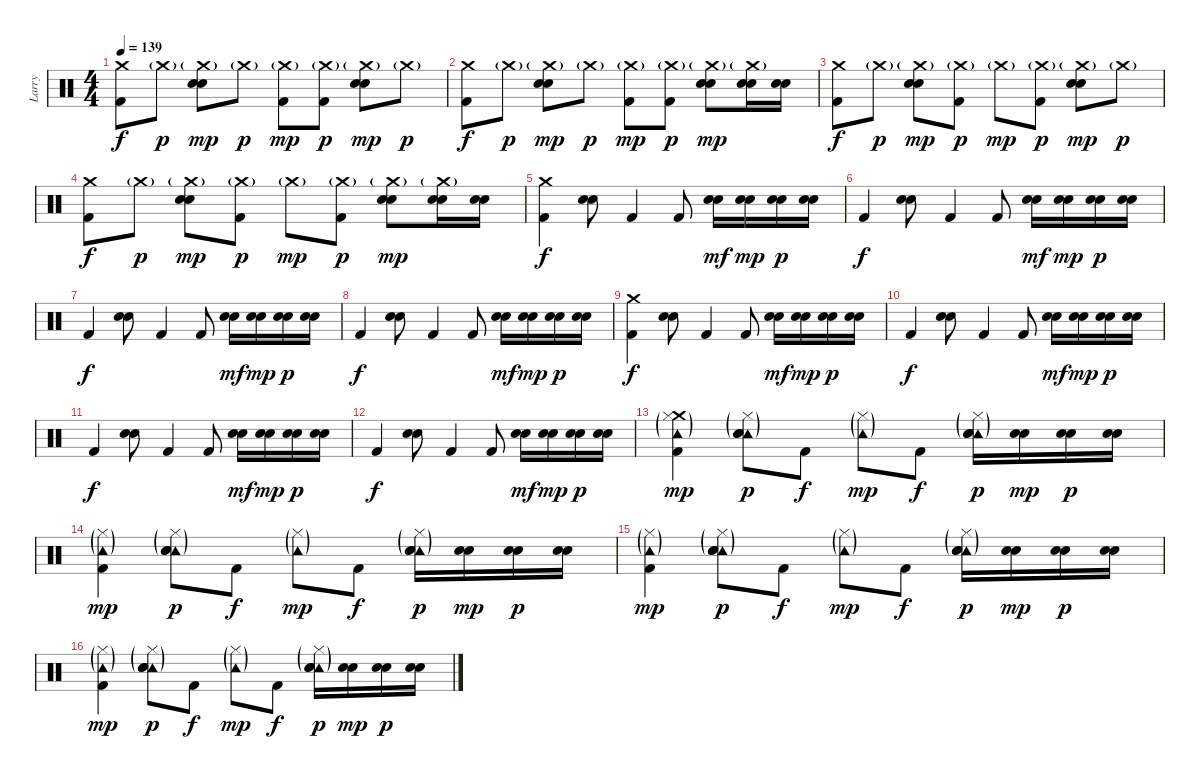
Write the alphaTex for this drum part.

\track ("Larry" "Larry") {instrument percussion}
\staff {score}
\articulation defaults
\ts (4 4)
\tempo 139
\clef neutral
\ks c
("Crash medium (hit)" "Kick (hit) 2").8{dy f} "Crash medium (hit)"{g}.8{dy p} ("Crash medium (hit)"{g} "Snare (hit) 2" "Electric Snare (hit)").8{dy mp} "Crash medium (hit)"{g}.8{dy p} ("Crash medium (hit)"{g} "Kick (hit) 2").8{dy mp} ("Crash medium (hit)"{g} "Kick (hit) 2").8{dy p} ("Crash medium (hit)"{g} "Snare (hit) 2" "Electric Snare (hit)").8{dy mp} "Crash medium (hit)"{g}.8{dy p} |
("Crash medium (hit)" "Kick (hit) 2").8{dy f} "Crash medium (hit)"{g}.8{dy p} ("Crash medium (hit)"{g} "Snare (hit) 2" "Electric Snare (hit)").8{dy mp} "Crash medium (hit)"{g}.8{dy p} ("Crash medium (hit)"{g} "Kick (hit) 2").8{dy mp} ("Crash medium (hit)"{g} "Kick (hit) 2").8{dy p} ("Crash medium (hit)"{g} "Snare (hit) 2" "Electric Snare (hit)").8{dy mp} ("Crash medium (hit)"{g} "Snare (hit) 2" "Electric Snare (hit)").16 ("Snare (hit) 2" "Electric Snare (hit)").16 |
("Crash medium (hit)" "Kick (hit) 2").8{dy f} "Crash medium (hit)"{g}.8{dy p} ("Crash medium (hit)"{g} "Snare (hit) 2" "Electric Snare (hit)").8{dy mp} ("Crash medium (hit)"{g} "Kick (hit) 2").8{dy p} "Crash medium (hit)"{g}.8{dy mp} ("Crash medium (hit)"{g} "Kick (hit) 2").8{dy p} ("Crash medium (hit)"{g} "Snare (hit) 2" "Electric Snare (hit)").8{dy mp} "Crash medium (hit)"{g}.8{dy p} |
("Crash medium (hit)" "Kick (hit) 2").8{dy f} "Crash medium (hit)"{g}.8{dy p} ("Crash medium (hit)"{g} "Snare (hit) 2" "Electric Snare (hit)").8{dy mp} ("Crash medium (hit)"{g} "Kick (hit) 2").8{dy p} "Crash medium (hit)"{g}.8{dy mp} ("Crash medium (hit)"{g} "Kick (hit) 2").8{dy p} ("Crash medium (hit)"{g} "Snare (hit) 2" "Electric Snare (hit)").8{dy mp} ("Crash medium (hit)"{g} "Snare (hit) 2" "Electric Snare (hit)").16 ("Snare (hit) 2" "Electric Snare (hit)").16 |
("Crash medium (hit)" "Kick (hit) 2").4{dy f} ("Snare (hit) 2" "Electric Snare (hit)").8 "Kick (hit) 2".4 "Kick (hit) 2".8 ("Snare (hit) 2" "Electric Snare (hit)").16{dy mf} ("Snare (hit) 2" "Electric Snare (hit)").16{dy mp} ("Snare (hit) 2" "Electric Snare (hit)").16{dy p} ("Snare (hit) 2" "Electric Snare (hit)").16 |
"Kick (hit) 2".4{dy f} ("Snare (hit) 2" "Electric Snare (hit)").8 "Kick (hit) 2".4 "Kick (hit) 2".8 ("Snare (hit) 2" "Electric Snare (hit)").16{dy mf} ("Snare (hit) 2" "Electric Snare (hit)").16{dy mp} ("Snare (hit) 2" "Electric Snare (hit)").16{dy p} ("Snare (hit) 2" "Electric Snare (hit)").16 |
"Kick (hit) 2".4{dy f} ("Snare (hit) 2" "Electric Snare (hit)").8 "Kick (hit) 2".4 "Kick (hit) 2".8 ("Snare (hit) 2" "Electric Snare (hit)").16{dy mf} ("Snare (hit) 2" "Electric Snare (hit)").16{dy mp} ("Snare (hit) 2" "Electric Snare (hit)").16{dy p} ("Snare (hit) 2" "Electric Snare (hit)").16 |
"Kick (hit) 2".4{dy f} ("Snare (hit) 2" "Electric Snare (hit)").8 "Kick (hit) 2".4 "Kick (hit) 2".8 ("Snare (hit) 2" "Electric Snare (hit)").16{dy mf} ("Snare (hit) 2" "Electric Snare (hit)").16{dy mp} ("Snare (hit) 2" "Electric Snare (hit)").16{dy p} ("Snare (hit) 2" "Electric Snare (hit)").16 |
("Crash medium (hit)" "Kick (hit) 2").4{dy f} ("Snare (hit) 2" "Electric Snare (hit)").8 "Kick (hit) 2".4 "Kick (hit) 2".8 ("Snare (hit) 2" "Electric Snare (hit)").16{dy mf} ("Snare (hit) 2" "Electric Snare (hit)").16{dy mp} ("Snare (hit) 2" "Electric Snare (hit)").16{dy p} ("Snare (hit) 2" "Electric Snare (hit)").16 |
"Kick (hit) 2".4{dy f} ("Snare (hit) 2" "Electric Snare (hit)").8 "Kick (hit) 2".4 "Kick (hit) 2".8 ("Snare (hit) 2" "Electric Snare (hit)").16{dy mf} ("Snare (hit) 2" "Electric Snare (hit)").16{dy mp} ("Snare (hit) 2" "Electric Snare (hit)").16{dy p} ("Snare (hit) 2" "Electric Snare (hit)").16 |
"Kick (hit) 2".4{dy f} ("Snare (hit) 2" "Electric Snare (hit)").8 "Kick (hit) 2".4 "Kick (hit) 2".8 ("Snare (hit) 2" "Electric Snare (hit)").16{dy mf} ("Snare (hit) 2" "Electric Snare (hit)").16{dy mp} ("Snare (hit) 2" "Electric Snare (hit)").16{dy p} ("Snare (hit) 2" "Electric Snare (hit)").16 |
"Kick (hit) 2".4{dy f} ("Snare (hit) 2" "Electric Snare (hit)").8 "Kick (hit) 2".4 "Kick (hit) 2".8 ("Snare (hit) 2" "Electric Snare (hit)").16{dy mf} ("Snare (hit) 2" "Electric Snare (hit)").16{dy mp} ("Snare (hit) 2" "Electric Snare (hit)").16{dy p} ("Snare (hit) 2" "Electric Snare (hit)").16 |
("Crash medium (hit)" "Tambourine (hit)"{g} "Kick (hit) 2" "Hi-Hat (closed)"{g}).4{dy mp} ("Tambourine (hit)"{g} "Snare (hit) 2" "Electric Snare (hit)" "Hi-Hat (closed)"{g}).8{dy p} "Kick (hit) 2".8{dy f} ("Tambourine (hit)"{g} "Hi-Hat (closed)"{g}).8{dy mp} "Kick (hit) 2".8{dy f} ("Tambourine (hit)"{g} "Snare (hit) 2" "Electric Snare (hit)" "Hi-Hat (closed)"{g}).16{dy p} ("Snare (hit) 2" "Electric Snare (hit)").16{dy mp} ("Snare (hit) 2" "Electric Snare (hit)").16{dy p} ("Snare (hit) 2" "Electric Snare (hit)").16 |
("Tambourine (hit)"{g} "Kick (hit) 2" "Hi-Hat (closed)"{g}).4{dy mp} ("Tambourine (hit)"{g} "Snare (hit) 2" "Electric Snare (hit)" "Hi-Hat (closed)"{g}).8{dy p} "Kick (hit) 2".8{dy f} ("Tambourine (hit)"{g} "Hi-Hat (closed)"{g}).8{dy mp} "Kick (hit) 2".8{dy f} ("Tambourine (hit)"{g} "Snare (hit) 2" "Electric Snare (hit)" "Hi-Hat (closed)"{g}).16{dy p} ("Snare (hit) 2" "Electric Snare (hit)").16{dy mp} ("Snare (hit) 2" "Electric Snare (hit)").16{dy p} ("Snare (hit) 2" "Electric Snare (hit)").16 |
("Tambourine (hit)"{g} "Kick (hit) 2" "Hi-Hat (closed)"{g}).4{dy mp} ("Tambourine (hit)"{g} "Snare (hit) 2" "Electric Snare (hit)" "Hi-Hat (closed)"{g}).8{dy p} "Kick (hit) 2".8{dy f} ("Tambourine (hit)"{g} "Hi-Hat (closed)"{g}).8{dy mp} "Kick (hit) 2".8{dy f} ("Tambourine (hit)"{g} "Snare (hit) 2" "Electric Snare (hit)" "Hi-Hat (closed)"{g}).16{dy p} ("Snare (hit) 2" "Electric Snare (hit)").16{dy mp} ("Snare (hit) 2" "Electric Snare (hit)").16{dy p} ("Snare (hit) 2" "Electric Snare (hit)").16 |
("Tambourine (hit)"{g} "Kick (hit) 2" "Hi-Hat (closed)"{g}).4{dy mp} ("Tambourine (hit)"{g} "Snare (hit) 2" "Electric Snare (hit)" "Hi-Hat (closed)"{g}).8{dy p} "Kick (hit) 2".8{dy f} ("Tambourine (hit)"{g} "Hi-Hat (closed)"{g}).8{dy mp} "Kick (hit) 2".8{dy f} ("Tambourine (hit)"{g} "Snare (hit) 2" "Electric Snare (hit)" "Hi-Hat (closed)"{g}).16{dy p} ("Snare (hit) 2" "Electric Snare (hit)").16{dy mp} ("Snare (hit) 2" "Electric Snare (hit)").16{dy p} ("Snare (hit) 2" "Electric Snare (hit)").16
